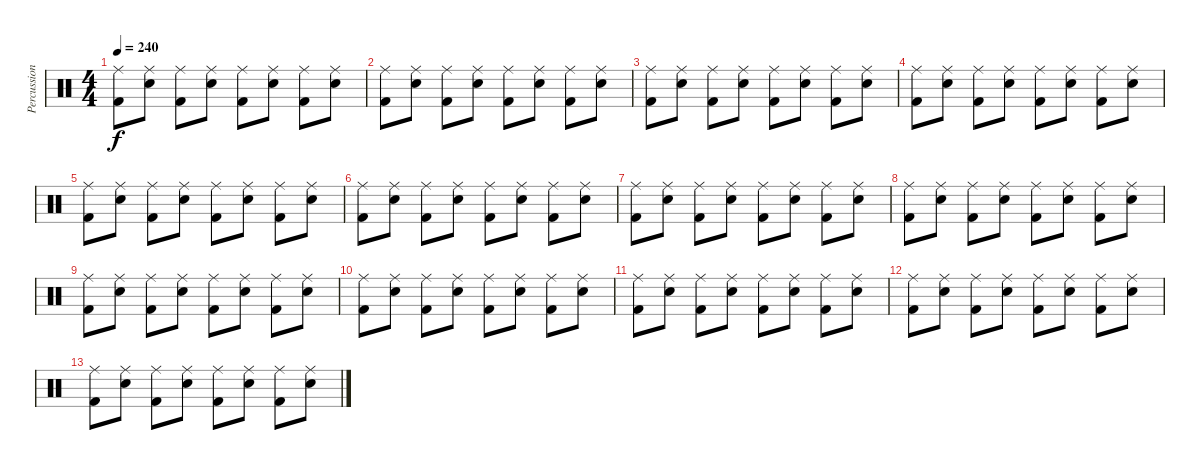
\track ("Percussion" "Percussion") {instrument percussion}
\staff {score}
\articulation defaults
\ts (4 4)
\tempo 240
\clef neutral
\ks c
("Kick (hit) 2" "Ride (middle)").8{dy f} ("Snare (hit) 2" "Ride (middle)").8 ("Kick (hit) 2" "Ride (middle)").8 ("Snare (hit) 2" "Ride (middle)").8 ("Kick (hit) 2" "Ride (middle)").8 ("Snare (hit) 2" "Ride (middle)").8 ("Kick (hit) 2" "Ride (middle)").8 ("Snare (hit) 2" "Ride (middle)").8 |
("Kick (hit) 2" "Ride (middle)").8 ("Snare (hit) 2" "Ride (middle)").8 ("Kick (hit) 2" "Ride (middle)").8 ("Snare (hit) 2" "Ride (middle)").8 ("Kick (hit) 2" "Ride (middle)").8 ("Snare (hit) 2" "Ride (middle)").8 ("Kick (hit) 2" "Ride (middle)").8 ("Snare (hit) 2" "Ride (middle)").8 |
("Kick (hit) 2" "Ride (middle)").8 ("Snare (hit) 2" "Ride (middle)").8 ("Kick (hit) 2" "Ride (middle)").8 ("Snare (hit) 2" "Ride (middle)").8 ("Kick (hit) 2" "Ride (middle)").8 ("Snare (hit) 2" "Ride (middle)").8 ("Kick (hit) 2" "Ride (middle)").8 ("Snare (hit) 2" "Ride (middle)").8 |
("Kick (hit) 2" "Ride (middle)").8 ("Snare (hit) 2" "Ride (middle)").8 ("Kick (hit) 2" "Ride (middle)").8 ("Snare (hit) 2" "Ride (middle)").8 ("Kick (hit) 2" "Ride (middle)").8 ("Snare (hit) 2" "Ride (middle)").8 ("Kick (hit) 2" "Ride (middle)").8 ("Snare (hit) 2" "Ride (middle)").8 |
("Kick (hit) 2" "Ride (middle)").8 ("Snare (hit) 2" "Ride (middle)").8 ("Kick (hit) 2" "Ride (middle)").8 ("Snare (hit) 2" "Ride (middle)").8 ("Kick (hit) 2" "Ride (middle)").8 ("Snare (hit) 2" "Ride (middle)").8 ("Kick (hit) 2" "Ride (middle)").8 ("Snare (hit) 2" "Ride (middle)").8 |
("Kick (hit) 2" "Ride (middle)").8 ("Snare (hit) 2" "Ride (middle)").8 ("Kick (hit) 2" "Ride (middle)").8 ("Snare (hit) 2" "Ride (middle)").8 ("Kick (hit) 2" "Ride (middle)").8 ("Snare (hit) 2" "Ride (middle)").8 ("Kick (hit) 2" "Ride (middle)").8 ("Snare (hit) 2" "Ride (middle)").8 |
("Kick (hit) 2" "Ride (middle)").8 ("Snare (hit) 2" "Ride (middle)").8 ("Kick (hit) 2" "Ride (middle)").8 ("Snare (hit) 2" "Ride (middle)").8 ("Kick (hit) 2" "Ride (middle)").8 ("Snare (hit) 2" "Ride (middle)").8 ("Kick (hit) 2" "Ride (middle)").8 ("Snare (hit) 2" "Ride (middle)").8 |
("Kick (hit) 2" "Ride (middle)").8 ("Snare (hit) 2" "Ride (middle)").8 ("Kick (hit) 2" "Ride (middle)").8 ("Snare (hit) 2" "Ride (middle)").8 ("Kick (hit) 2" "Ride (middle)").8 ("Snare (hit) 2" "Ride (middle)").8 ("Kick (hit) 2" "Ride (middle)").8 ("Snare (hit) 2" "Ride (middle)").8 |
("Kick (hit) 2" "Ride (middle)").8 ("Snare (hit) 2" "Ride (middle)").8 ("Kick (hit) 2" "Ride (middle)").8 ("Snare (hit) 2" "Ride (middle)").8 ("Kick (hit) 2" "Ride (middle)").8 ("Snare (hit) 2" "Ride (middle)").8 ("Kick (hit) 2" "Ride (middle)").8 ("Snare (hit) 2" "Ride (middle)").8 |
("Kick (hit) 2" "Ride (middle)").8 ("Snare (hit) 2" "Ride (middle)").8 ("Kick (hit) 2" "Ride (middle)").8 ("Snare (hit) 2" "Ride (middle)").8 ("Kick (hit) 2" "Ride (middle)").8 ("Snare (hit) 2" "Ride (middle)").8 ("Kick (hit) 2" "Ride (middle)").8 ("Snare (hit) 2" "Ride (middle)").8 |
("Kick (hit) 2" "Ride (middle)").8 ("Snare (hit) 2" "Ride (middle)").8 ("Kick (hit) 2" "Ride (middle)").8 ("Snare (hit) 2" "Ride (middle)").8 ("Kick (hit) 2" "Ride (middle)").8 ("Snare (hit) 2" "Ride (middle)").8 ("Kick (hit) 2" "Ride (middle)").8 ("Snare (hit) 2" "Ride (middle)").8 |
("Kick (hit) 2" "Ride (middle)").8 ("Snare (hit) 2" "Ride (middle)").8 ("Kick (hit) 2" "Ride (middle)").8 ("Snare (hit) 2" "Ride (middle)").8 ("Kick (hit) 2" "Ride (middle)").8 ("Snare (hit) 2" "Ride (middle)").8 ("Kick (hit) 2" "Ride (middle)").8 ("Snare (hit) 2" "Ride (middle)").8 |
("Kick (hit) 2" "Ride (middle)").8 ("Snare (hit) 2" "Ride (middle)").8 ("Kick (hit) 2" "Ride (middle)").8 ("Snare (hit) 2" "Ride (middle)").8 ("Kick (hit) 2" "Ride (middle)").8 ("Snare (hit) 2" "Ride (middle)").8 ("Kick (hit) 2" "Ride (middle)").8 ("Snare (hit) 2" "Ride (middle)").8
